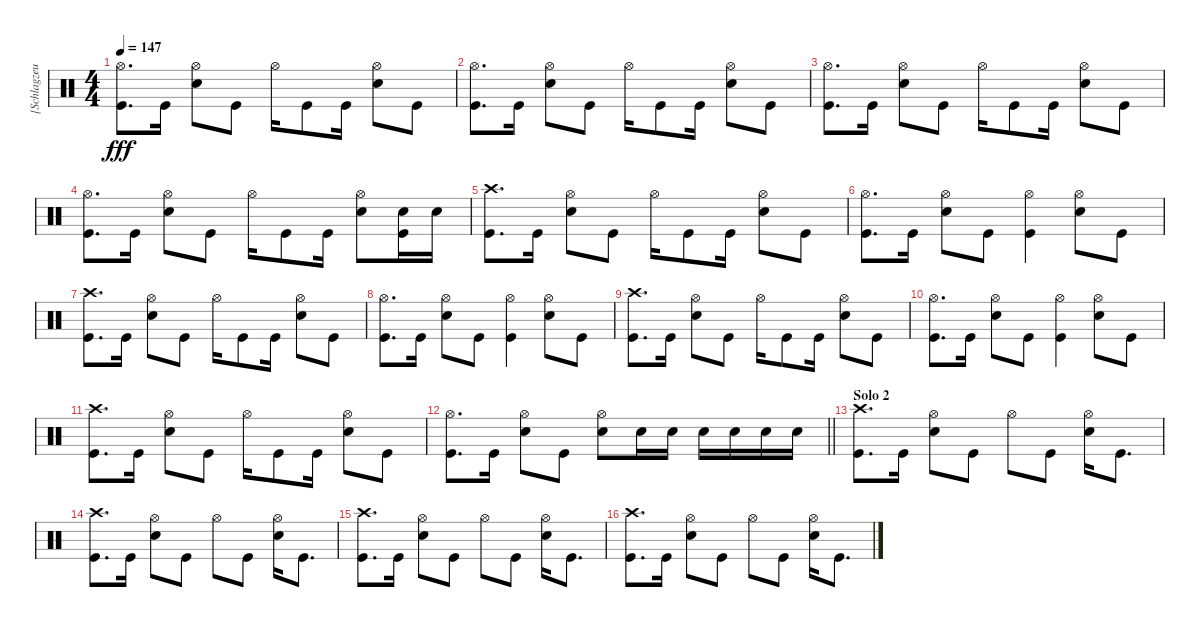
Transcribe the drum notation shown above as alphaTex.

\track ("[Schlagzeug]" "[Schlagzeu") {instrument percussion}
\staff {score}
\articulation defaults
\ts (4 4)
\tempo 147
\clef neutral
\ks c
("Hi-Hat (open)" "Kick (hit)").8{d dy fff} "Kick (hit)".16 ("Hi-Hat (open)" "Electric Snare (hit)").8 "Kick (hit)".8 "Hi-Hat (open)".16 "Kick (hit)".8 "Kick (hit)".16 ("Hi-Hat (open)" "Electric Snare (hit)").8 "Kick (hit)".8 |
("Hi-Hat (open)" "Kick (hit)").8{d} "Kick (hit)".16 ("Hi-Hat (open)" "Electric Snare (hit)").8 "Kick (hit)".8 "Hi-Hat (open)".16 "Kick (hit)".8 "Kick (hit)".16 ("Hi-Hat (open)" "Electric Snare (hit)").8 "Kick (hit)".8 |
("Hi-Hat (open)" "Kick (hit)").8{d} "Kick (hit)".16 ("Hi-Hat (open)" "Electric Snare (hit)").8 "Kick (hit)".8 "Hi-Hat (open)".16 "Kick (hit)".8 "Kick (hit)".16 ("Hi-Hat (open)" "Electric Snare (hit)").8 "Kick (hit)".8 |
("Hi-Hat (open)" "Kick (hit)").8{d} "Kick (hit)".16 ("Hi-Hat (open)" "Electric Snare (hit)").8 "Kick (hit)".8 "Hi-Hat (open)".16 "Kick (hit)".8 "Kick (hit)".16 ("Hi-Hat (open)" "Electric Snare (hit)").8 ("Electric Snare (hit)" "Kick (hit)").16 "Electric Snare (hit)".16 |
("Crash high (hit)" "Kick (hit)").8{d} "Kick (hit)".16 ("Hi-Hat (open)" "Electric Snare (hit)").8 "Kick (hit)".8 "Hi-Hat (open)".16 "Kick (hit)".8 "Kick (hit)".16 ("Hi-Hat (open)" "Electric Snare (hit)").8 "Kick (hit)".8 |
("Hi-Hat (open)" "Kick (hit)").8{d} "Kick (hit)".16 ("Hi-Hat (open)" "Electric Snare (hit)").8 "Kick (hit)".8 ("Hi-Hat (open)" "Kick (hit)").4 ("Hi-Hat (open)" "Electric Snare (hit)").8 "Kick (hit)".8 |
("Crash high (hit)" "Kick (hit)").8{d} "Kick (hit)".16 ("Hi-Hat (open)" "Electric Snare (hit)").8 "Kick (hit)".8 "Hi-Hat (open)".16 "Kick (hit)".8 "Kick (hit)".16 ("Hi-Hat (open)" "Electric Snare (hit)").8 "Kick (hit)".8 |
("Hi-Hat (open)" "Kick (hit)").8{d} "Kick (hit)".16 ("Hi-Hat (open)" "Electric Snare (hit)").8 "Kick (hit)".8 ("Hi-Hat (open)" "Kick (hit)").4 ("Hi-Hat (open)" "Electric Snare (hit)").8 "Kick (hit)".8 |
("Crash high (hit)" "Kick (hit)").8{d} "Kick (hit)".16 ("Hi-Hat (open)" "Electric Snare (hit)").8 "Kick (hit)".8 "Hi-Hat (open)".16 "Kick (hit)".8 "Kick (hit)".16 ("Hi-Hat (open)" "Electric Snare (hit)").8 "Kick (hit)".8 |
("Hi-Hat (open)" "Kick (hit)").8{d} "Kick (hit)".16 ("Hi-Hat (open)" "Electric Snare (hit)").8 "Kick (hit)".8 ("Hi-Hat (open)" "Kick (hit)").4 ("Hi-Hat (open)" "Electric Snare (hit)").8 "Kick (hit)".8 |
("Crash high (hit)" "Kick (hit)").8{d} "Kick (hit)".16 ("Hi-Hat (open)" "Electric Snare (hit)").8 "Kick (hit)".8 "Hi-Hat (open)".16 "Kick (hit)".8 "Kick (hit)".16 ("Hi-Hat (open)" "Electric Snare (hit)").8 "Kick (hit)".8 |
\barLineRight lightlight
("Hi-Hat (open)" "Kick (hit)").8{d} "Kick (hit)".16 ("Hi-Hat (open)" "Electric Snare (hit)").8 "Kick (hit)".8 ("Hi-Hat (open)" "Electric Snare (hit)").8 "Electric Snare (hit)".16 "Electric Snare (hit)".16 "Electric Snare (hit)".16 "Electric Snare (hit)".16 "Electric Snare (hit)".16 "Electric Snare (hit)".16 |
\section ("" "Solo 2")
("Crash high (hit)" "Kick (hit)").8{d} "Kick (hit)".16 ("Hi-Hat (open)" "Electric Snare (hit)").8 "Kick (hit)".8 "Hi-Hat (open)".8 "Kick (hit)".8 ("Hi-Hat (open)" "Electric Snare (hit)").16 "Kick (hit)".8{d} |
("Crash high (hit)" "Kick (hit)").8{d} "Kick (hit)".16 ("Hi-Hat (open)" "Electric Snare (hit)").8 "Kick (hit)".8 "Hi-Hat (open)".8 "Kick (hit)".8 ("Hi-Hat (open)" "Electric Snare (hit)").16 "Kick (hit)".8{d} |
("Crash high (hit)" "Kick (hit)").8{d} "Kick (hit)".16 ("Hi-Hat (open)" "Electric Snare (hit)").8 "Kick (hit)".8 "Hi-Hat (open)".8 "Kick (hit)".8 ("Hi-Hat (open)" "Electric Snare (hit)").16 "Kick (hit)".8{d} |
("Crash high (hit)" "Kick (hit)").8{d} "Kick (hit)".16 ("Hi-Hat (open)" "Electric Snare (hit)").8 "Kick (hit)".8 "Hi-Hat (open)".8 "Kick (hit)".8 ("Hi-Hat (open)" "Electric Snare (hit)").16 "Kick (hit)".8{d}
